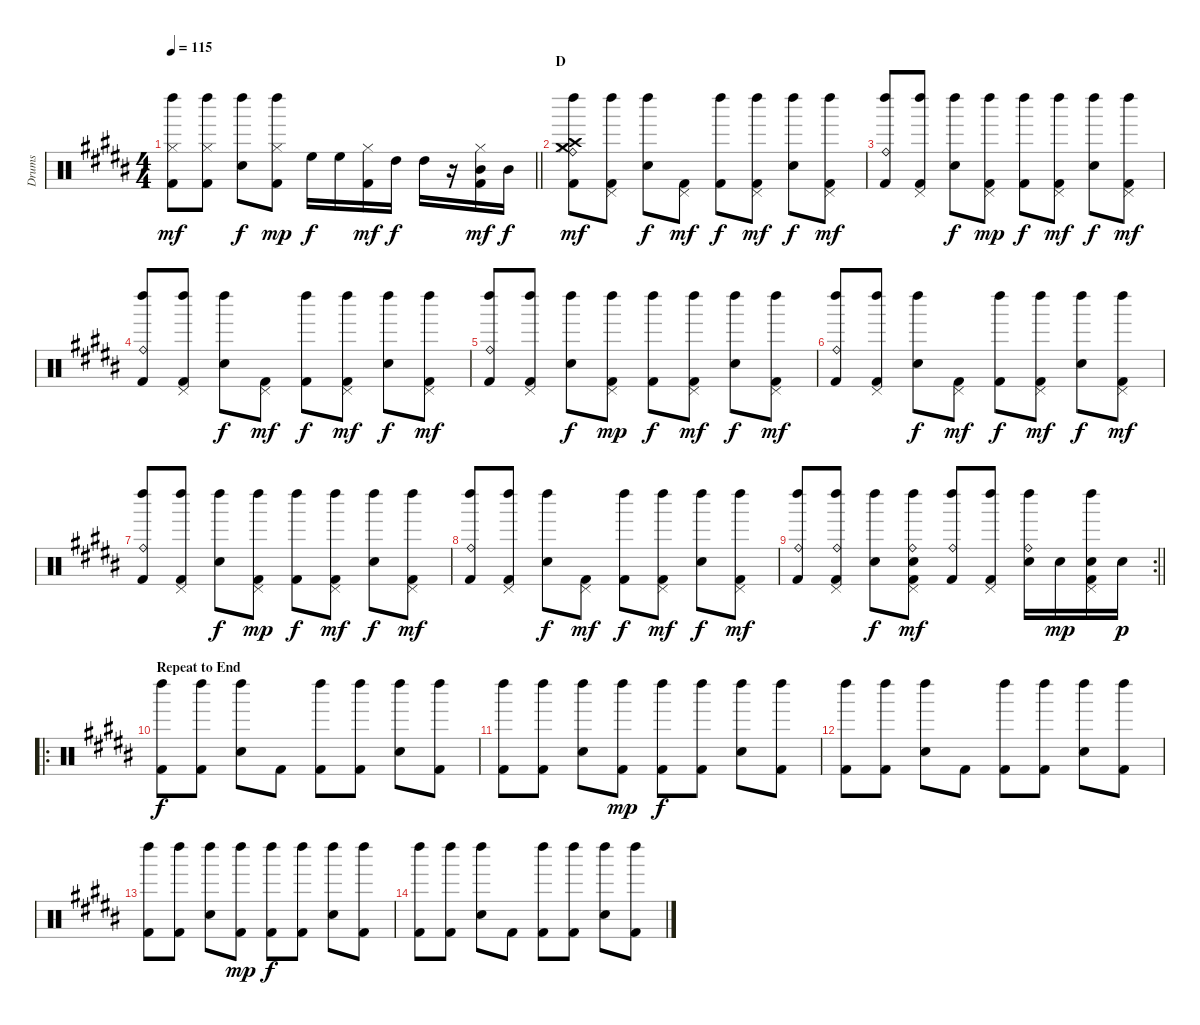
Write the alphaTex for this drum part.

\track ("Drums" "Drums") {instrument percussion}
\staff {score}
\articulation defaults
\ts (4 4)
\tempo 115
\clef neutral
\barLineRight lightlight
\ks b
("Hi-Hat (closed)" "Kick (hit) 2" "Left Maraca (hit)").8{dy mf} ("Hi-Hat (closed)" "Kick (hit) 2" "Left Maraca (hit)").8 ("Electric Snare (hit)" "Left Maraca (hit)").8{dy f} ("Hi-Hat (closed)" "Kick (hit) 2" "Left Maraca (hit)").8{dy mp} "High Floor Tom (hit)".16{dy f balance 16} "High Floor Tom (hit)".16 ("Hi-Hat (closed)" "Kick (hit) 2").16{dy mf} "High Tom (hit)".16{dy f balance 8} "High Tom (hit)".16 r.16 ("Mid Tom (hit)" "Hi-Hat (closed)" "Kick (hit) 2").16{dy mf balance 0} "Mid Tom (hit)".16{dy f} |
\section ("" "D")
("Hi-Hat (closed)" "Crash high (hit)" "Crash medium (hit)" "Kick (hit) 2" "Left Maraca (hit)" "Ride (bell)").8{dy mf balance 8} ("Pedal Hi-Hat (hit)" "Kick (hit) 2" "Left Maraca (hit)").8 ("Electric Snare (hit)" "Left Maraca (hit)").8{dy f} ("Pedal Hi-Hat (hit)" "Kick (hit) 2").8{dy mf} ("Kick (hit) 2" "Left Maraca (hit)").8{dy f} ("Pedal Hi-Hat (hit)" "Kick (hit) 2" "Left Maraca (hit)").8{dy mf} ("Electric Snare (hit)" "Left Maraca (hit)").8{dy f} ("Pedal Hi-Hat (hit)" "Kick (hit) 2" "Left Maraca (hit)").8{dy mf} |
("Kick (hit) 2" "Left Maraca (hit)" "Ride (bell)").8 ("Pedal Hi-Hat (hit)" "Kick (hit) 2" "Left Maraca (hit)").8 ("Electric Snare (hit)" "Left Maraca (hit)").8{dy f} ("Pedal Hi-Hat (hit)" "Kick (hit) 2" "Left Maraca (hit)").8{dy mp} ("Kick (hit) 2" "Left Maraca (hit)").8{dy f} ("Pedal Hi-Hat (hit)" "Kick (hit) 2" "Left Maraca (hit)").8{dy mf} ("Electric Snare (hit)" "Left Maraca (hit)").8{dy f} ("Pedal Hi-Hat (hit)" "Kick (hit) 2" "Left Maraca (hit)").8{dy mf} |
("Kick (hit) 2" "Left Maraca (hit)" "Ride (bell)").8 ("Pedal Hi-Hat (hit)" "Kick (hit) 2" "Left Maraca (hit)").8 ("Electric Snare (hit)" "Left Maraca (hit)").8{dy f} ("Pedal Hi-Hat (hit)" "Kick (hit) 2").8{dy mf} ("Kick (hit) 2" "Left Maraca (hit)").8{dy f} ("Pedal Hi-Hat (hit)" "Kick (hit) 2" "Left Maraca (hit)").8{dy mf} ("Electric Snare (hit)" "Left Maraca (hit)").8{dy f} ("Pedal Hi-Hat (hit)" "Kick (hit) 2" "Left Maraca (hit)").8{dy mf} |
("Kick (hit) 2" "Left Maraca (hit)" "Ride (bell)").8 ("Pedal Hi-Hat (hit)" "Kick (hit) 2" "Left Maraca (hit)").8 ("Electric Snare (hit)" "Left Maraca (hit)").8{dy f} ("Pedal Hi-Hat (hit)" "Kick (hit) 2" "Left Maraca (hit)").8{dy mp} ("Kick (hit) 2" "Left Maraca (hit)").8{dy f} ("Pedal Hi-Hat (hit)" "Kick (hit) 2" "Left Maraca (hit)").8{dy mf} ("Electric Snare (hit)" "Left Maraca (hit)").8{dy f} ("Pedal Hi-Hat (hit)" "Kick (hit) 2" "Left Maraca (hit)").8{dy mf} |
("Kick (hit) 2" "Left Maraca (hit)" "Ride (bell)").8 ("Pedal Hi-Hat (hit)" "Kick (hit) 2" "Left Maraca (hit)").8 ("Electric Snare (hit)" "Left Maraca (hit)").8{dy f} ("Pedal Hi-Hat (hit)" "Kick (hit) 2").8{dy mf} ("Kick (hit) 2" "Left Maraca (hit)").8{dy f} ("Pedal Hi-Hat (hit)" "Kick (hit) 2" "Left Maraca (hit)").8{dy mf} ("Electric Snare (hit)" "Left Maraca (hit)").8{dy f} ("Pedal Hi-Hat (hit)" "Kick (hit) 2" "Left Maraca (hit)").8{dy mf} |
("Kick (hit) 2" "Left Maraca (hit)" "Ride (bell)").8 ("Pedal Hi-Hat (hit)" "Kick (hit) 2" "Left Maraca (hit)").8 ("Electric Snare (hit)" "Left Maraca (hit)").8{dy f} ("Pedal Hi-Hat (hit)" "Kick (hit) 2" "Left Maraca (hit)").8{dy mp} ("Kick (hit) 2" "Left Maraca (hit)").8{dy f} ("Pedal Hi-Hat (hit)" "Kick (hit) 2" "Left Maraca (hit)").8{dy mf} ("Electric Snare (hit)" "Left Maraca (hit)").8{dy f} ("Pedal Hi-Hat (hit)" "Kick (hit) 2" "Left Maraca (hit)").8{dy mf} |
("Kick (hit) 2" "Left Maraca (hit)" "Ride (bell)").8 ("Pedal Hi-Hat (hit)" "Kick (hit) 2" "Left Maraca (hit)").8 ("Electric Snare (hit)" "Left Maraca (hit)").8{dy f} ("Pedal Hi-Hat (hit)" "Kick (hit) 2").8{dy mf} ("Kick (hit) 2" "Left Maraca (hit)").8{dy f} ("Pedal Hi-Hat (hit)" "Kick (hit) 2" "Left Maraca (hit)").8{dy mf} ("Electric Snare (hit)" "Left Maraca (hit)").8{dy f} ("Pedal Hi-Hat (hit)" "Kick (hit) 2" "Left Maraca (hit)").8{dy mf} |
\rc 2
\barLineRight lightlight
("Kick (hit) 2" "Left Maraca (hit)" "Ride (bell)").8 ("Pedal Hi-Hat (hit)" "Kick (hit) 2" "Left Maraca (hit)" "Ride (bell)").8 ("Electric Snare (hit)" "Left Maraca (hit)").8{dy f} ("Pedal Hi-Hat (hit)" "Electric Snare (hit)" "Kick (hit) 2" "Left Maraca (hit)" "Ride (bell)").8{dy mf} ("Kick (hit) 2" "Left Maraca (hit)" "Ride (bell)").8 ("Pedal Hi-Hat (hit)" "Kick (hit) 2" "Left Maraca (hit)").8 ("Electric Snare (hit)" "Left Maraca (hit)" "Ride (bell)").16 "Electric Snare (hit)".16{dy mp} ("Pedal Hi-Hat (hit)" "Electric Snare (hit)" "Kick (hit) 2" "Left Maraca (hit)").16 "Electric Snare (hit)".16{dy p} |
\ro
\section ("" "Repeat to End")
("Kick (hit) 2" "Left Maraca (hit)").8{dy f} ("Kick (hit) 2" "Left Maraca (hit)").8 ("Electric Snare (hit)" "Left Maraca (hit)").8 "Kick (hit) 2".8 ("Kick (hit) 2" "Left Maraca (hit)").8 ("Kick (hit) 2" "Left Maraca (hit)").8 ("Electric Snare (hit)" "Left Maraca (hit)").8 ("Kick (hit) 2" "Left Maraca (hit)").8 |
("Kick (hit) 2" "Left Maraca (hit)").8 ("Kick (hit) 2" "Left Maraca (hit)").8 ("Electric Snare (hit)" "Left Maraca (hit)").8 ("Kick (hit) 2" "Left Maraca (hit)").8{dy mp} ("Kick (hit) 2" "Left Maraca (hit)").8{dy f} ("Kick (hit) 2" "Left Maraca (hit)").8 ("Electric Snare (hit)" "Left Maraca (hit)").8 ("Kick (hit) 2" "Left Maraca (hit)").8 |
("Kick (hit) 2" "Left Maraca (hit)").8 ("Kick (hit) 2" "Left Maraca (hit)").8 ("Electric Snare (hit)" "Left Maraca (hit)").8 "Kick (hit) 2".8 ("Kick (hit) 2" "Left Maraca (hit)").8 ("Kick (hit) 2" "Left Maraca (hit)").8 ("Electric Snare (hit)" "Left Maraca (hit)").8 ("Kick (hit) 2" "Left Maraca (hit)").8 |
("Kick (hit) 2" "Left Maraca (hit)").8 ("Kick (hit) 2" "Left Maraca (hit)").8 ("Electric Snare (hit)" "Left Maraca (hit)").8 ("Kick (hit) 2" "Left Maraca (hit)").8{dy mp} ("Kick (hit) 2" "Left Maraca (hit)").8{dy f} ("Kick (hit) 2" "Left Maraca (hit)").8 ("Electric Snare (hit)" "Left Maraca (hit)").8 ("Kick (hit) 2" "Left Maraca (hit)").8 |
("Kick (hit) 2" "Left Maraca (hit)").8 ("Kick (hit) 2" "Left Maraca (hit)").8 ("Electric Snare (hit)" "Left Maraca (hit)").8 "Kick (hit) 2".8 ("Kick (hit) 2" "Left Maraca (hit)").8 ("Kick (hit) 2" "Left Maraca (hit)").8 ("Electric Snare (hit)" "Left Maraca (hit)").8 ("Kick (hit) 2" "Left Maraca (hit)").8
